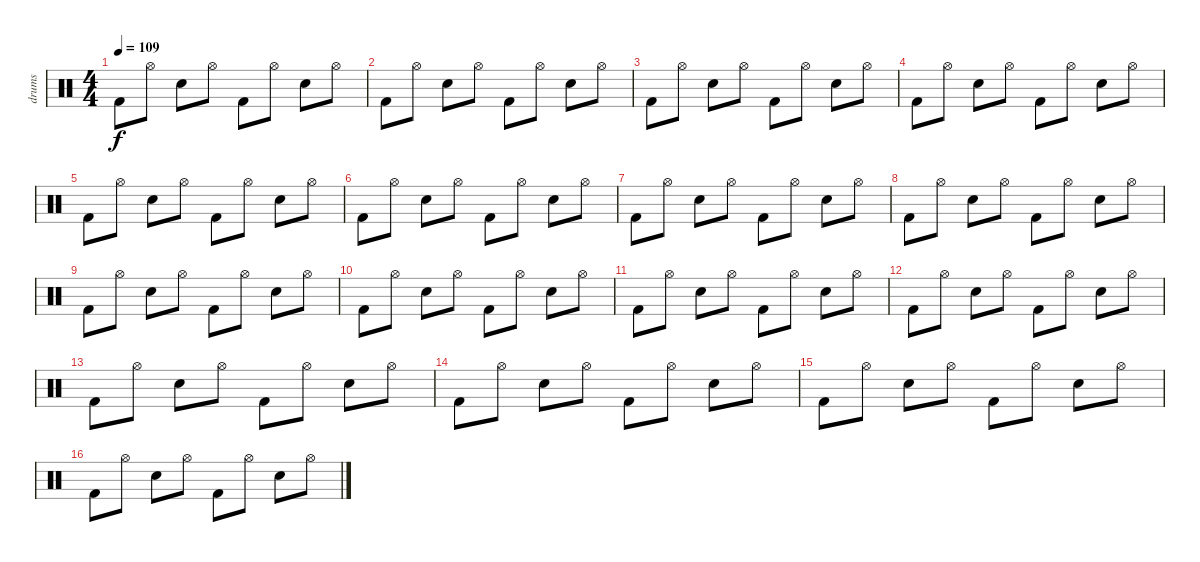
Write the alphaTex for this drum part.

\track ("drums" "drums") {instrument percussion}
\staff {score}
\articulation defaults
\ts (4 4)
\tempo 109
\clef neutral
\ks c "Kick (hit) 2".8{dy f} "Hi-Hat (open)".8 "Snare (hit) 2".8 "Hi-Hat (open)".8 "Kick (hit) 2".8 "Hi-Hat (open)".8 "Snare (hit) 2".8 "Hi-Hat (open)".8
|
"Kick (hit) 2".8 "Hi-Hat (open)".8 "Snare (hit) 2".8 "Hi-Hat (open)".8 "Kick (hit) 2".8 "Hi-Hat (open)".8 "Snare (hit) 2".8 "Hi-Hat (open)".8 |
"Kick (hit) 2".8 "Hi-Hat (open)".8 "Snare (hit) 2".8 "Hi-Hat (open)".8 "Kick (hit) 2".8 "Hi-Hat (open)".8 "Snare (hit) 2".8 "Hi-Hat (open)".8 |
"Kick (hit) 2".8 "Hi-Hat (open)".8 "Snare (hit) 2".8 "Hi-Hat (open)".8 "Kick (hit) 2".8 "Hi-Hat (open)".8 "Snare (hit) 2".8 "Hi-Hat (open)".8 |
"Kick (hit) 2".8 "Hi-Hat (open)".8 "Snare (hit) 2".8 "Hi-Hat (open)".8 "Kick (hit) 2".8 "Hi-Hat (open)".8 "Snare (hit) 2".8 "Hi-Hat (open)".8 |
"Kick (hit) 2".8 "Hi-Hat (open)".8 "Snare (hit) 2".8 "Hi-Hat (open)".8 "Kick (hit) 2".8 "Hi-Hat (open)".8 "Snare (hit) 2".8 "Hi-Hat (open)".8 |
"Kick (hit) 2".8 "Hi-Hat (open)".8 "Snare (hit) 2".8 "Hi-Hat (open)".8 "Kick (hit) 2".8 "Hi-Hat (open)".8 "Snare (hit) 2".8 "Hi-Hat (open)".8 |
"Kick (hit) 2".8 "Hi-Hat (open)".8 "Snare (hit) 2".8 "Hi-Hat (open)".8 "Kick (hit) 2".8 "Hi-Hat (open)".8 "Snare (hit) 2".8 "Hi-Hat (open)".8 |
"Kick (hit) 2".8 "Hi-Hat (open)".8 "Snare (hit) 2".8 "Hi-Hat (open)".8 "Kick (hit) 2".8 "Hi-Hat (open)".8 "Snare (hit) 2".8 "Hi-Hat (open)".8 |
"Kick (hit) 2".8 "Hi-Hat (open)".8 "Snare (hit) 2".8 "Hi-Hat (open)".8 "Kick (hit) 2".8 "Hi-Hat (open)".8 "Snare (hit) 2".8 "Hi-Hat (open)".8 |
"Kick (hit) 2".8 "Hi-Hat (open)".8 "Snare (hit) 2".8 "Hi-Hat (open)".8 "Kick (hit) 2".8 "Hi-Hat (open)".8 "Snare (hit) 2".8 "Hi-Hat (open)".8 |
"Kick (hit) 2".8 "Hi-Hat (open)".8 "Snare (hit) 2".8 "Hi-Hat (open)".8 "Kick (hit) 2".8 "Hi-Hat (open)".8 "Snare (hit) 2".8 "Hi-Hat (open)".8 |
"Kick (hit) 2".8 "Hi-Hat (open)".8 "Snare (hit) 2".8 "Hi-Hat (open)".8 "Kick (hit) 2".8 "Hi-Hat (open)".8 "Snare (hit) 2".8 "Hi-Hat (open)".8 |
"Kick (hit) 2".8 "Hi-Hat (open)".8 "Snare (hit) 2".8 "Hi-Hat (open)".8 "Kick (hit) 2".8 "Hi-Hat (open)".8 "Snare (hit) 2".8 "Hi-Hat (open)".8 |
"Kick (hit) 2".8 "Hi-Hat (open)".8 "Snare (hit) 2".8 "Hi-Hat (open)".8 "Kick (hit) 2".8 "Hi-Hat (open)".8 "Snare (hit) 2".8 "Hi-Hat (open)".8 |
"Kick (hit) 2".8 "Hi-Hat (open)".8 "Snare (hit) 2".8 "Hi-Hat (open)".8 "Kick (hit) 2".8 "Hi-Hat (open)".8 "Snare (hit) 2".8 "Hi-Hat (open)".8
